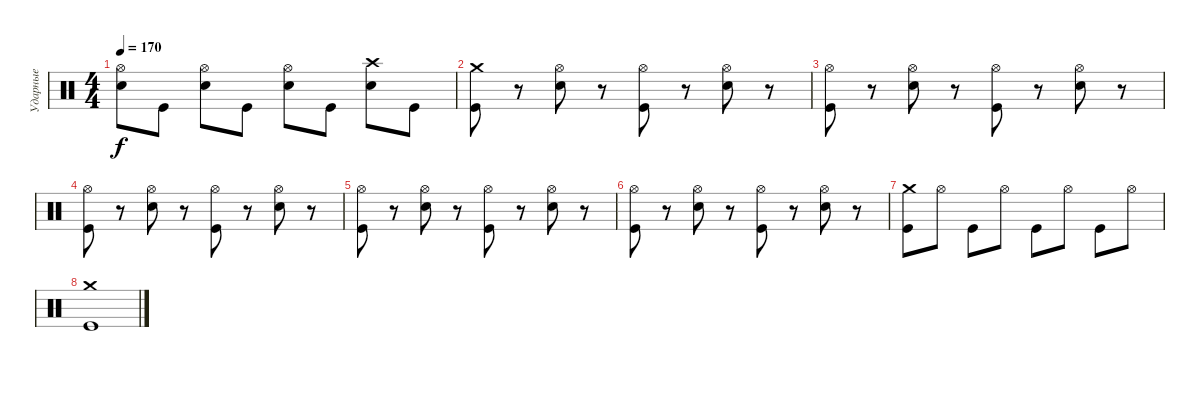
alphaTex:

\track ("Ударные" "Ударные") {instrument percussion}
\staff {score}
\articulation defaults
\ts (4 4)
\tempo 170
\clef neutral
\ks c
("Hi-Hat (open)" "Electric Snare (hit)").8{dy f} "Kick (hit)".8 ("Hi-Hat (open)" "Electric Snare (hit)").8 "Kick (hit)".8 ("Hi-Hat (open)" "Electric Snare (hit)").8 "Kick (hit)".8 ("Crash high (hit)" "Electric Snare (hit)").8 "Kick (hit)".8 |
("Crash medium (hit)" "Kick (hit)").8 r.8 ("Hi-Hat (open)" "Electric Snare (hit)").8 r.8 ("Hi-Hat (open)" "Kick (hit)").8 r.8 ("Hi-Hat (open)" "Electric Snare (hit)").8 r.8 |
("Hi-Hat (open)" "Kick (hit)").8 r.8 ("Hi-Hat (open)" "Electric Snare (hit)").8 r.8 ("Hi-Hat (open)" "Kick (hit)").8 r.8 ("Hi-Hat (open)" "Electric Snare (hit)").8 r.8 |
("Hi-Hat (open)" "Kick (hit)").8 r.8 ("Hi-Hat (open)" "Electric Snare (hit)").8 r.8 ("Hi-Hat (open)" "Kick (hit)").8 r.8 ("Hi-Hat (open)" "Electric Snare (hit)").8 r.8 |
("Hi-Hat (open)" "Kick (hit)").8 r.8 ("Hi-Hat (open)" "Electric Snare (hit)").8 r.8 ("Hi-Hat (open)" "Kick (hit)").8 r.8 ("Hi-Hat (open)" "Electric Snare (hit)").8 r.8 |
("Hi-Hat (open)" "Kick (hit)").8 r.8 ("Hi-Hat (open)" "Electric Snare (hit)").8 r.8 ("Hi-Hat (open)" "Kick (hit)").8 r.8 ("Hi-Hat (open)" "Electric Snare (hit)").8 r.8 |
("Crash medium (hit)" "Kick (hit)").8 "Hi-Hat (open)".8 "Kick (hit)".8 "Hi-Hat (open)".8 "Kick (hit)".8 "Hi-Hat (open)".8 "Kick (hit)".8 "Hi-Hat (open)".8 |
("Crash medium (hit)" "Kick (hit)").1
